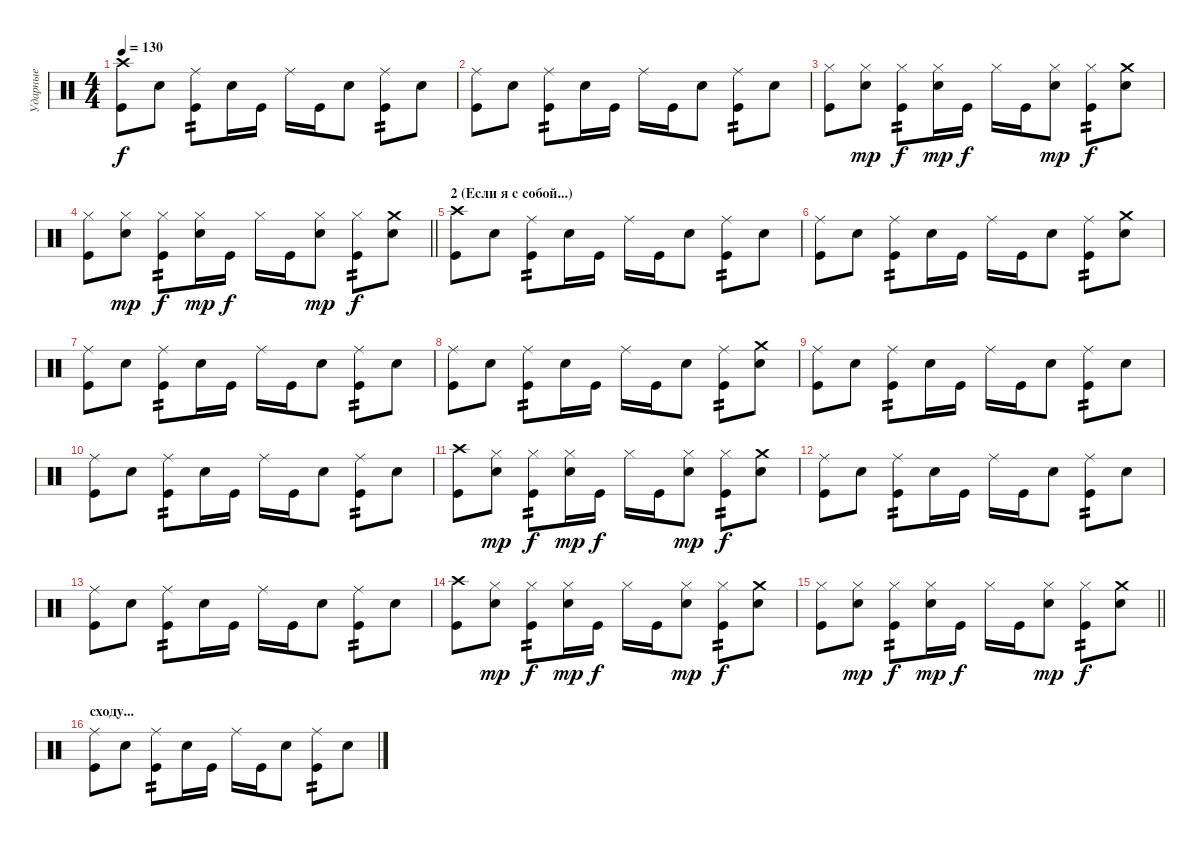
\track ("Ударные" "Ударные") {instrument percussion}
\staff {score}
\articulation defaults
\ts (4 4)
\tempo 130
\clef neutral
\ks c
("Crash high (hit)" "Kick (hit)").8{dy f} "Snare (hit) 2".8 ("Ride (middle)" "Kick (hit)").8{tp 2} "Snare (hit) 2".16 "Kick (hit)".16 "Ride (middle)".16 "Kick (hit)".16 "Snare (hit) 2".8 ("Ride (middle)" "Kick (hit)").8{tp 2} "Snare (hit) 2".8 |
("Ride (middle)" "Kick (hit)").8 "Snare (hit) 2".8 ("Ride (middle)" "Kick (hit)").8{tp 2} "Snare (hit) 2".16 "Kick (hit)".16 "Ride (middle)".16 "Kick (hit)".16 "Snare (hit) 2".8 ("Ride (middle)" "Kick (hit)").8{tp 2} "Snare (hit) 2".8 |
("Hi-Hat (closed)" "Kick (hit)").8 ("Hi-Hat (closed)" "Snare (hit) 2").8{dy mp} ("Hi-Hat (closed)" "Kick (hit)").8{tp 2 dy f} ("Hi-Hat (closed)" "Snare (hit) 2").16{dy mp} "Kick (hit)".16{dy f} "Hi-Hat (closed)".16 "Kick (hit)".16 ("Hi-Hat (closed)" "Snare (hit) 2").8{dy mp} ("Hi-Hat (closed)" "Kick (hit)").8{tp 2 dy f} ("Crash medium (hit)" "Snare (hit) 2").8 |
\barLineRight lightlight
("Hi-Hat (closed)" "Kick (hit)").8 ("Hi-Hat (closed)" "Snare (hit) 2").8{dy mp} ("Hi-Hat (closed)" "Kick (hit)").8{tp 2 dy f} ("Hi-Hat (closed)" "Snare (hit) 2").16{dy mp} "Kick (hit)".16{dy f} "Hi-Hat (closed)".16 "Kick (hit)".16 ("Hi-Hat (closed)" "Snare (hit) 2").8{dy mp} ("Hi-Hat (closed)" "Kick (hit)").8{tp 2 dy f} ("Crash medium (hit)" "Snare (hit) 2").8 |
\section ("" "2 (Если я с собой...)")
("Crash high (hit)" "Kick (hit)").8 "Snare (hit) 2".8 ("Ride (middle)" "Kick (hit)").8{tp 2} "Snare (hit) 2".16 "Kick (hit)".16 "Ride (middle)".16 "Kick (hit)".16 "Snare (hit) 2".8 ("Ride (middle)" "Kick (hit)").8{tp 2} "Snare (hit) 2".8 |
("Ride (middle)" "Kick (hit)").8 "Snare (hit) 2".8 ("Ride (middle)" "Kick (hit)").8{tp 2} "Snare (hit) 2".16 "Kick (hit)".16 "Ride (middle)".16 "Kick (hit)".16 "Snare (hit) 2".8 ("Ride (middle)" "Kick (hit)").8{tp 2} ("Crash medium (hit)" "Snare (hit) 2").8 |
("Ride (middle)" "Kick (hit)").8 "Snare (hit) 2".8 ("Ride (middle)" "Kick (hit)").8{tp 2} "Snare (hit) 2".16 "Kick (hit)".16 "Ride (middle)".16 "Kick (hit)".16 "Snare (hit) 2".8 ("Ride (middle)" "Kick (hit)").8{tp 2} "Snare (hit) 2".8 |
("Ride (middle)" "Kick (hit)").8 "Snare (hit) 2".8 ("Ride (middle)" "Kick (hit)").8{tp 2} "Snare (hit) 2".16 "Kick (hit)".16 "Ride (middle)".16 "Kick (hit)".16 "Snare (hit) 2".8 ("Ride (middle)" "Kick (hit)").8{tp 2} ("Crash medium (hit)" "Snare (hit) 2").8 |
("Ride (middle)" "Kick (hit)").8 "Snare (hit) 2".8 ("Ride (middle)" "Kick (hit)").8{tp 2} "Snare (hit) 2".16 "Kick (hit)".16 "Ride (middle)".16 "Kick (hit)".16 "Snare (hit) 2".8 ("Ride (middle)" "Kick (hit)").8{tp 2} "Snare (hit) 2".8 |
("Ride (middle)" "Kick (hit)").8 "Snare (hit) 2".8 ("Ride (middle)" "Kick (hit)").8{tp 2} "Snare (hit) 2".16 "Kick (hit)".16 "Ride (middle)".16 "Kick (hit)".16 "Snare (hit) 2".8 ("Ride (middle)" "Kick (hit)").8{tp 2} "Snare (hit) 2".8 |
("Crash high (hit)" "Kick (hit)").8 ("Hi-Hat (closed)" "Snare (hit) 2").8{dy mp} ("Hi-Hat (closed)" "Kick (hit)").8{tp 2 dy f} ("Hi-Hat (closed)" "Snare (hit) 2").16{dy mp} "Kick (hit)".16{dy f} "Hi-Hat (closed)".16 "Kick (hit)".16 ("Hi-Hat (closed)" "Snare (hit) 2").8{dy mp} ("Hi-Hat (closed)" "Kick (hit)").8{tp 2 dy f} ("Crash medium (hit)" "Snare (hit) 2").8 |
("Ride (middle)" "Kick (hit)").8 "Snare (hit) 2".8 ("Ride (middle)" "Kick (hit)").8{tp 2} "Snare (hit) 2".16 "Kick (hit)".16 "Ride (middle)".16 "Kick (hit)".16 "Snare (hit) 2".8 ("Ride (middle)" "Kick (hit)").8{tp 2} "Snare (hit) 2".8 |
("Ride (middle)" "Kick (hit)").8 "Snare (hit) 2".8 ("Ride (middle)" "Kick (hit)").8{tp 2} "Snare (hit) 2".16 "Kick (hit)".16 "Ride (middle)".16 "Kick (hit)".16 "Snare (hit) 2".8 ("Ride (middle)" "Kick (hit)").8{tp 2} "Snare (hit) 2".8 |
("Crash high (hit)" "Kick (hit)").8 ("Hi-Hat (closed)" "Snare (hit) 2").8{dy mp} ("Hi-Hat (closed)" "Kick (hit)").8{tp 2 dy f} ("Hi-Hat (closed)" "Snare (hit) 2").16{dy mp} "Kick (hit)".16{dy f} "Hi-Hat (closed)".16 "Kick (hit)".16 ("Hi-Hat (closed)" "Snare (hit) 2").8{dy mp} ("Hi-Hat (closed)" "Kick (hit)").8{tp 2 dy f} ("Crash medium (hit)" "Snare (hit) 2").8 |
\barLineRight lightlight
("Hi-Hat (closed)" "Kick (hit)").8 ("Hi-Hat (closed)" "Snare (hit) 2").8{dy mp} ("Hi-Hat (closed)" "Kick (hit)").8{tp 2 dy f} ("Hi-Hat (closed)" "Snare (hit) 2").16{dy mp} "Kick (hit)".16{dy f} "Hi-Hat (closed)".16 "Kick (hit)".16 ("Hi-Hat (closed)" "Snare (hit) 2").8{dy mp} ("Hi-Hat (closed)" "Kick (hit)").8{tp 2 dy f} ("Crash medium (hit)" "Snare (hit) 2").8 |
\section ("" "сходу...")
("Ride (middle)" "Kick (hit)").8 "Snare (hit) 2".8 ("Ride (middle)" "Kick (hit)").8{tp 2} "Snare (hit) 2".16 "Kick (hit)".16 "Ride (middle)".16 "Kick (hit)".16 "Snare (hit) 2".8 ("Ride (middle)" "Kick (hit)").8{tp 2} "Snare (hit) 2".8
